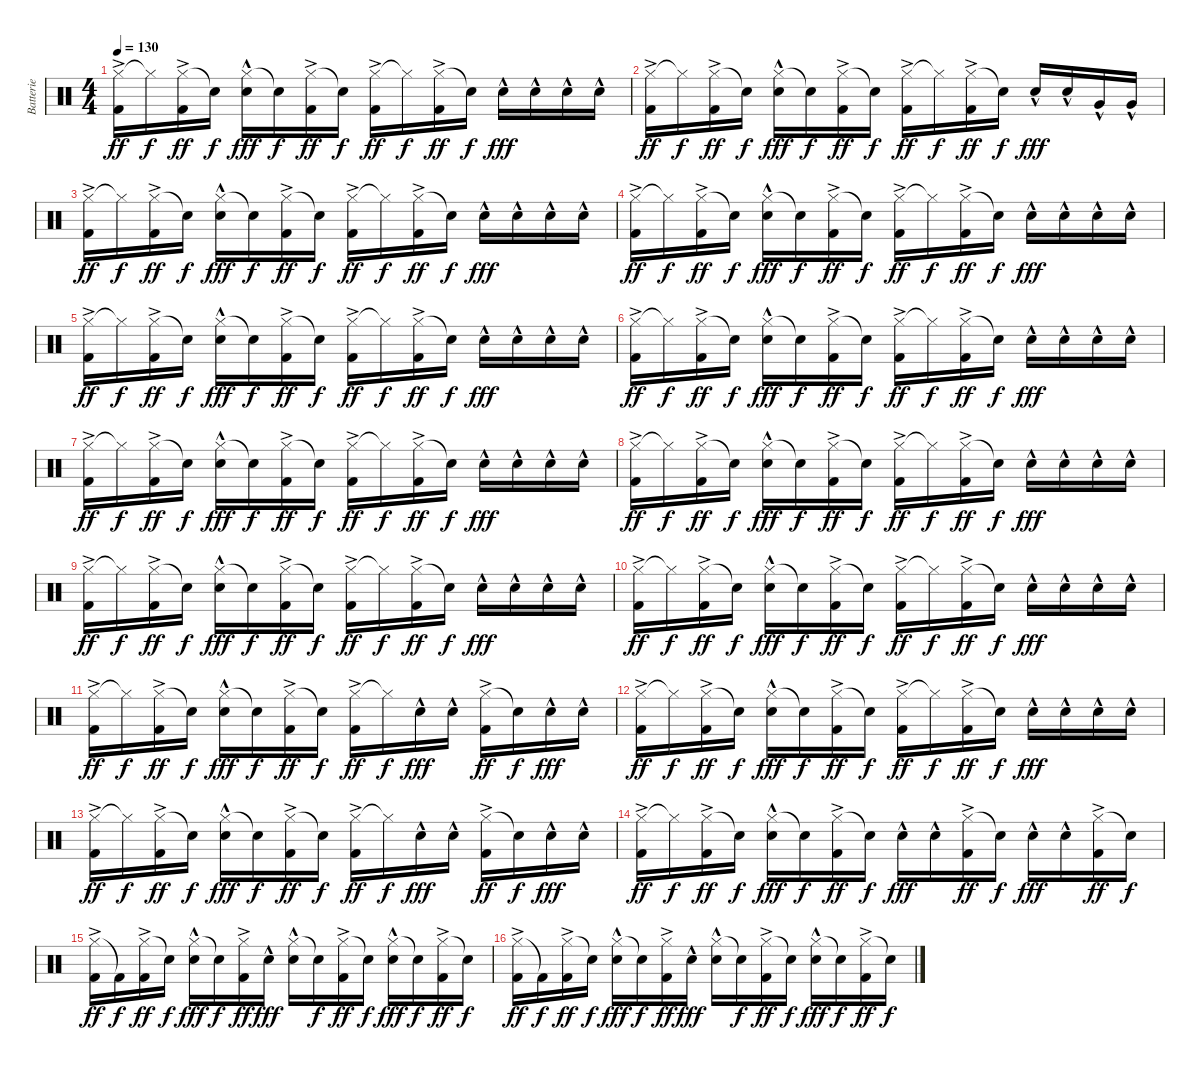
\track ("Batterie" "Batterie") {instrument percussion}
\staff {score}
\articulation defaults
\ts (4 4)
\tempo 130
\clef neutral
\ks c
("Hi-Hat (closed)"{ac} "Kick (hit) 2"{ac}).16{dy ff} "Hi-Hat (closed)"{t}.16{dy f} ("Hi-Hat (closed)"{ac} "Kick (hit) 2"{ac}).16{dy ff} "Snare (hit)"{t}.16{dy f} ("Hi-Hat (closed)"{hac} "Electric Snare (hit)"{hac}).16{dy fff} "Snare (hit)"{t}.16{dy f} ("Hi-Hat (closed)"{ac} "Kick (hit) 2"{ac}).16{dy ff} "Snare (hit)"{t}.16{dy f} ("Hi-Hat (closed)"{ac} "Kick (hit) 2"{ac}).16{dy ff} "Hi-Hat (closed)"{t}.16{dy f} ("Hi-Hat (closed)"{ac} "Kick (hit) 2"{ac}).16{dy ff} "Snare (hit)"{t}.16{dy f} "Electric Snare (hit)"{hac}.16{dy fff} "Electric Snare (hit)"{hac}.16 "Electric Snare (hit)"{hac}.16 "Electric Snare (hit)"{hac}.16 |
("Hi-Hat (closed)"{ac} "Kick (hit) 2"{ac}).16{dy ff} "Hi-Hat (closed)"{t}.16{dy f} ("Hi-Hat (closed)"{ac} "Kick (hit) 2"{ac}).16{dy ff} "Snare (hit)"{t}.16{dy f} ("Hi-Hat (closed)"{hac} "Electric Snare (hit)"{hac}).16{dy fff} "Snare (hit)"{t}.16{dy f} ("Hi-Hat (closed)"{ac} "Kick (hit) 2"{ac}).16{dy ff} "Snare (hit)"{t}.16{dy f} ("Hi-Hat (closed)"{ac} "Kick (hit) 2"{ac}).16{dy ff} "Hi-Hat (closed)"{t}.16{dy f} ("Hi-Hat (closed)"{ac} "Kick (hit) 2"{ac}).16{dy ff} "Snare (hit)"{t}.16{dy f} "Electric Snare (hit)"{hac}.16{dy fff} "Electric Snare (hit)"{hac}.16 "Very Low Tom (hit)"{hac}.16 "Very Low Tom (hit)"{hac}.16 |
("Hi-Hat (closed)"{ac} "Kick (hit) 2"{ac}).16{dy ff} "Hi-Hat (closed)"{t}.16{dy f} ("Hi-Hat (closed)"{ac} "Kick (hit) 2"{ac}).16{dy ff} "Snare (hit)"{t}.16{dy f} ("Hi-Hat (closed)"{hac} "Electric Snare (hit)"{hac}).16{dy fff} "Snare (hit)"{t}.16{dy f} ("Hi-Hat (closed)"{ac} "Kick (hit) 2"{ac}).16{dy ff} "Snare (hit)"{t}.16{dy f} ("Hi-Hat (closed)"{ac} "Kick (hit) 2"{ac}).16{dy ff} "Hi-Hat (closed)"{t}.16{dy f} ("Hi-Hat (closed)"{ac} "Kick (hit) 2"{ac}).16{dy ff} "Snare (hit)"{t}.16{dy f} "Electric Snare (hit)"{hac}.16{dy fff} "Electric Snare (hit)"{hac}.16 "Electric Snare (hit)"{hac}.16 "Electric Snare (hit)"{hac}.16 |
("Hi-Hat (closed)"{ac} "Kick (hit) 2"{ac}).16{dy ff} "Hi-Hat (closed)"{t}.16{dy f} ("Hi-Hat (closed)"{ac} "Kick (hit) 2"{ac}).16{dy ff} "Snare (hit)"{t}.16{dy f} ("Hi-Hat (closed)"{hac} "Electric Snare (hit)"{hac}).16{dy fff} "Snare (hit)"{t}.16{dy f} ("Hi-Hat (closed)"{ac} "Kick (hit) 2"{ac}).16{dy ff} "Snare (hit)"{t}.16{dy f} ("Hi-Hat (closed)"{ac} "Kick (hit) 2"{ac}).16{dy ff} "Hi-Hat (closed)"{t}.16{dy f} ("Hi-Hat (closed)"{ac} "Kick (hit) 2"{ac}).16{dy ff} "Snare (hit)"{t}.16{dy f} "Electric Snare (hit)"{hac}.16{dy fff} "Electric Snare (hit)"{hac}.16 "Electric Snare (hit)"{hac}.16 "Electric Snare (hit)"{hac}.16 |
("Hi-Hat (closed)"{ac} "Kick (hit) 2"{ac}).16{dy ff} "Hi-Hat (closed)"{t}.16{dy f} ("Hi-Hat (closed)"{ac} "Kick (hit) 2"{ac}).16{dy ff} "Snare (hit)"{t}.16{dy f} ("Hi-Hat (closed)"{hac} "Electric Snare (hit)"{hac}).16{dy fff} "Snare (hit)"{t}.16{dy f} ("Hi-Hat (closed)"{ac} "Kick (hit) 2"{ac}).16{dy ff} "Snare (hit)"{t}.16{dy f} ("Hi-Hat (closed)"{ac} "Kick (hit) 2"{ac}).16{dy ff} "Hi-Hat (closed)"{t}.16{dy f} ("Hi-Hat (closed)"{ac} "Kick (hit) 2"{ac}).16{dy ff} "Snare (hit)"{t}.16{dy f} "Electric Snare (hit)"{hac}.16{dy fff} "Electric Snare (hit)"{hac}.16 "Electric Snare (hit)"{hac}.16 "Electric Snare (hit)"{hac}.16 |
("Hi-Hat (closed)"{ac} "Kick (hit) 2"{ac}).16{dy ff} "Hi-Hat (closed)"{t}.16{dy f} ("Hi-Hat (closed)"{ac} "Kick (hit) 2"{ac}).16{dy ff} "Snare (hit)"{t}.16{dy f} ("Hi-Hat (closed)"{hac} "Electric Snare (hit)"{hac}).16{dy fff} "Snare (hit)"{t}.16{dy f} ("Hi-Hat (closed)"{ac} "Kick (hit) 2"{ac}).16{dy ff} "Snare (hit)"{t}.16{dy f} ("Hi-Hat (closed)"{ac} "Kick (hit) 2"{ac}).16{dy ff} "Hi-Hat (closed)"{t}.16{dy f} ("Hi-Hat (closed)"{ac} "Kick (hit) 2"{ac}).16{dy ff} "Snare (hit)"{t}.16{dy f} "Electric Snare (hit)"{hac}.16{dy fff} "Electric Snare (hit)"{hac}.16 "Electric Snare (hit)"{hac}.16 "Electric Snare (hit)"{hac}.16 |
("Hi-Hat (closed)"{ac} "Kick (hit) 2"{ac}).16{dy ff} "Hi-Hat (closed)"{t}.16{dy f} ("Hi-Hat (closed)"{ac} "Kick (hit) 2"{ac}).16{dy ff} "Snare (hit)"{t}.16{dy f} ("Hi-Hat (closed)"{hac} "Electric Snare (hit)"{hac}).16{dy fff} "Snare (hit)"{t}.16{dy f} ("Hi-Hat (closed)"{ac} "Kick (hit) 2"{ac}).16{dy ff} "Snare (hit)"{t}.16{dy f} ("Hi-Hat (closed)"{ac} "Kick (hit) 2"{ac}).16{dy ff} "Hi-Hat (closed)"{t}.16{dy f} ("Hi-Hat (closed)"{ac} "Kick (hit) 2"{ac}).16{dy ff} "Snare (hit)"{t}.16{dy f} "Electric Snare (hit)"{hac}.16{dy fff} "Electric Snare (hit)"{hac}.16 "Electric Snare (hit)"{hac}.16 "Electric Snare (hit)"{hac}.16 |
("Hi-Hat (closed)"{ac} "Kick (hit) 2"{ac}).16{dy ff} "Hi-Hat (closed)"{t}.16{dy f} ("Hi-Hat (closed)"{ac} "Kick (hit) 2"{ac}).16{dy ff} "Snare (hit)"{t}.16{dy f} ("Hi-Hat (closed)"{hac} "Electric Snare (hit)"{hac}).16{dy fff} "Snare (hit)"{t}.16{dy f} ("Hi-Hat (closed)"{ac} "Kick (hit) 2"{ac}).16{dy ff} "Snare (hit)"{t}.16{dy f} ("Hi-Hat (closed)"{ac} "Kick (hit) 2"{ac}).16{dy ff} "Hi-Hat (closed)"{t}.16{dy f} ("Hi-Hat (closed)"{ac} "Kick (hit) 2"{ac}).16{dy ff} "Snare (hit)"{t}.16{dy f} "Electric Snare (hit)"{hac}.16{dy fff} "Electric Snare (hit)"{hac}.16 "Electric Snare (hit)"{hac}.16 "Electric Snare (hit)"{hac}.16 |
("Hi-Hat (closed)"{ac} "Kick (hit) 2"{ac}).16{dy ff} "Hi-Hat (closed)"{t}.16{dy f} ("Hi-Hat (closed)"{ac} "Kick (hit) 2"{ac}).16{dy ff} "Snare (hit)"{t}.16{dy f} ("Hi-Hat (closed)"{hac} "Electric Snare (hit)"{hac}).16{dy fff} "Snare (hit)"{t}.16{dy f} ("Hi-Hat (closed)"{ac} "Kick (hit) 2"{ac}).16{dy ff} "Snare (hit)"{t}.16{dy f} ("Hi-Hat (closed)"{ac} "Kick (hit) 2"{ac}).16{dy ff} "Hi-Hat (closed)"{t}.16{dy f} ("Hi-Hat (closed)"{ac} "Kick (hit) 2"{ac}).16{dy ff} "Snare (hit)"{t}.16{dy f} "Electric Snare (hit)"{hac}.16{dy fff} "Electric Snare (hit)"{hac}.16 "Electric Snare (hit)"{hac}.16 "Electric Snare (hit)"{hac}.16 |
("Hi-Hat (closed)"{ac} "Kick (hit) 2"{ac}).16{dy ff} "Hi-Hat (closed)"{t}.16{dy f} ("Hi-Hat (closed)"{ac} "Kick (hit) 2"{ac}).16{dy ff} "Snare (hit)"{t}.16{dy f} ("Hi-Hat (closed)"{hac} "Electric Snare (hit)"{hac}).16{dy fff} "Snare (hit)"{t}.16{dy f} ("Hi-Hat (closed)"{ac} "Kick (hit) 2"{ac}).16{dy ff} "Snare (hit)"{t}.16{dy f} ("Hi-Hat (closed)"{ac} "Kick (hit) 2"{ac}).16{dy ff} "Hi-Hat (closed)"{t}.16{dy f} ("Hi-Hat (closed)"{ac} "Kick (hit) 2"{ac}).16{dy ff} "Snare (hit)"{t}.16{dy f} "Electric Snare (hit)"{hac}.16{dy fff} "Electric Snare (hit)"{hac}.16 "Electric Snare (hit)"{hac}.16 "Electric Snare (hit)"{hac}.16 |
("Hi-Hat (closed)"{ac} "Kick (hit) 2"{ac}).16{dy ff} "Hi-Hat (closed)"{t}.16{dy f} ("Hi-Hat (closed)"{ac} "Kick (hit) 2"{ac}).16{dy ff} "Snare (hit)"{t}.16{dy f} ("Hi-Hat (closed)"{hac} "Electric Snare (hit)"{hac}).16{dy fff} "Snare (hit)"{t}.16{dy f} ("Hi-Hat (closed)"{ac} "Kick (hit) 2"{ac}).16{dy ff} "Snare (hit)"{t}.16{dy f} ("Hi-Hat (closed)"{ac} "Kick (hit) 2"{ac}).16{dy ff} "Hi-Hat (closed)"{t}.16{dy f} "Electric Snare (hit)"{hac}.16{dy fff} "Electric Snare (hit)"{hac}.16 ("Hi-Hat (closed)"{ac} "Kick (hit) 2"{ac}).16{dy ff} "Electric Snare (hit)"{t}.16{dy f} "Electric Snare (hit)"{hac}.16{dy fff} "Electric Snare (hit)"{hac}.16 |
("Hi-Hat (closed)"{ac} "Kick (hit) 2"{ac}).16{dy ff} "Hi-Hat (closed)"{t}.16{dy f} ("Hi-Hat (closed)"{ac} "Kick (hit) 2"{ac}).16{dy ff} "Snare (hit)"{t}.16{dy f} ("Hi-Hat (closed)"{hac} "Electric Snare (hit)"{hac}).16{dy fff} "Snare (hit)"{t}.16{dy f} ("Hi-Hat (closed)"{ac} "Kick (hit) 2"{ac}).16{dy ff} "Snare (hit)"{t}.16{dy f} ("Hi-Hat (closed)"{ac} "Kick (hit) 2"{ac}).16{dy ff} "Hi-Hat (closed)"{t}.16{dy f} ("Hi-Hat (closed)"{ac} "Kick (hit) 2"{ac}).16{dy ff} "Snare (hit)"{t}.16{dy f} "Electric Snare (hit)"{hac}.16{dy fff} "Electric Snare (hit)"{hac}.16 "Electric Snare (hit)"{hac}.16 "Electric Snare (hit)"{hac}.16 |
("Hi-Hat (closed)"{ac} "Kick (hit) 2"{ac}).16{dy ff} "Hi-Hat (closed)"{t}.16{dy f} ("Hi-Hat (closed)"{ac} "Kick (hit) 2"{ac}).16{dy ff} "Snare (hit)"{t}.16{dy f} ("Hi-Hat (closed)"{hac} "Electric Snare (hit)"{hac}).16{dy fff} "Snare (hit)"{t}.16{dy f} ("Hi-Hat (closed)"{ac} "Kick (hit) 2"{ac}).16{dy ff} "Snare (hit)"{t}.16{dy f} ("Hi-Hat (closed)"{ac} "Kick (hit) 2"{ac}).16{dy ff} "Hi-Hat (closed)"{t}.16{dy f} "Electric Snare (hit)"{hac}.16{dy fff} "Electric Snare (hit)"{hac}.16 ("Hi-Hat (closed)"{ac} "Kick (hit) 2"{ac}).16{dy ff} "Snare (hit)"{t}.16{dy f} "Electric Snare (hit)"{hac}.16{dy fff} "Electric Snare (hit)"{hac}.16 |
("Hi-Hat (closed)"{ac} "Kick (hit) 2"{ac}).16{dy ff} "Hi-Hat (closed)"{t}.16{dy f} ("Hi-Hat (closed)"{ac} "Kick (hit) 2"{ac}).16{dy ff} "Snare (hit)"{t}.16{dy f} ("Hi-Hat (closed)"{hac} "Electric Snare (hit)"{hac}).16{dy fff} "Snare (hit)"{t}.16{dy f} ("Hi-Hat (closed)"{ac} "Kick (hit) 2"{ac}).16{dy ff} "Snare (hit)"{t}.16{dy f} "Electric Snare (hit)"{hac}.16{dy fff} "Electric Snare (hit)"{hac}.16 ("Hi-Hat (closed)"{ac} "Kick (hit) 2"{ac}).16{dy ff} "Snare (hit)"{t}.16{dy f} "Electric Snare (hit)"{hac}.16{dy fff} "Electric Snare (hit)"{hac}.16 ("Hi-Hat (closed)" "Kick (hit) 2"{ac}).16{dy ff} "Snare (hit)"{t}.16{dy f} |
("Hi-Hat (closed)"{ac} "Kick (hit) 2"{ac}).16{dy ff} "Kick (hit) 2"{t}.16{dy f} ("Hi-Hat (closed)"{ac} "Kick (hit) 2"{ac}).16{dy ff} "Snare (hit)"{t}.16{dy f} ("Hi-Hat (closed)" "Electric Snare (hit)"{hac}).16{dy fff} "Snare (hit)"{t}.16{dy f} ("Hi-Hat (closed)"{ac} "Kick (hit) 2"{ac}).16{dy ff} "Electric Snare (hit)"{hac}.16{dy fff} ("Hi-Hat (closed)" "Electric Snare (hit)"{hac}).16 "Snare (hit)"{t}.16{dy f} ("Hi-Hat (closed)"{ac} "Kick (hit) 2"{ac}).16{dy ff} "Snare (hit)"{t}.16{dy f} ("Hi-Hat (closed)" "Electric Snare (hit)"{hac}).16{dy fff} "Snare (hit)"{t}.16{dy f} ("Hi-Hat (closed)" "Kick (hit) 2"{ac}).16{dy ff} "Snare (hit)"{t}.16{dy f} |
("Hi-Hat (closed)"{ac} "Kick (hit) 2"{ac}).16{dy ff} "Kick (hit) 2"{t}.16{dy f} ("Hi-Hat (closed)"{ac} "Kick (hit) 2"{ac}).16{dy ff} "Snare (hit)"{t}.16{dy f} ("Hi-Hat (closed)" "Electric Snare (hit)"{hac}).16{dy fff} "Snare (hit)"{t}.16{dy f} ("Hi-Hat (closed)"{ac} "Kick (hit) 2"{ac}).16{dy ff} "Electric Snare (hit)"{hac}.16{dy fff} ("Hi-Hat (closed)" "Electric Snare (hit)"{hac}).16 "Snare (hit)"{t}.16{dy f} ("Hi-Hat (closed)"{ac} "Kick (hit) 2"{ac}).16{dy ff} "Snare (hit)"{t}.16{dy f} ("Hi-Hat (closed)" "Electric Snare (hit)"{hac}).16{dy fff} "Snare (hit)"{t}.16{dy f} ("Hi-Hat (closed)" "Kick (hit) 2"{ac}).16{dy ff} "Snare (hit)"{t}.16{dy f}
